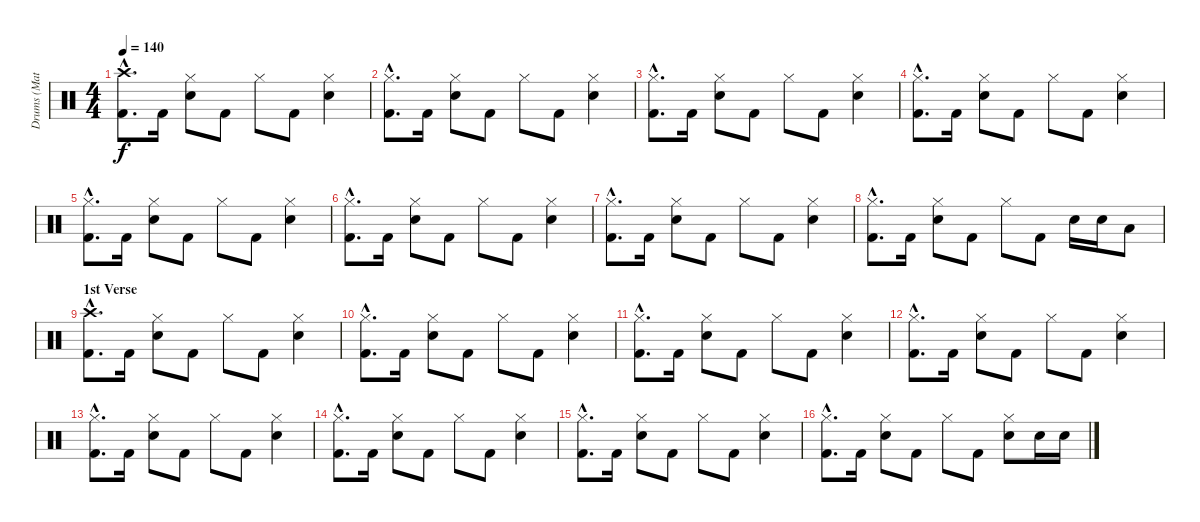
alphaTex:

\track ("Drums (Matt)" "Drums (Mat") {instrument percussion}
\staff {score}
\articulation defaults
\ts (4 4)
\tempo 140
\clef neutral
\ks c
("Crash high (hit)"{hac} "Kick (hit) 2"{hac}).8{d dy f} "Kick (hit) 2".16 ("Hi-Hat (closed)" "Snare (hit) 2").8 "Kick (hit) 2".8 "Hi-Hat (closed)".8 "Kick (hit) 2".8 ("Hi-Hat (closed)" "Snare (hit) 2").4 |
("Hi-Hat (closed)"{hac} "Kick (hit) 2"{hac}).8{d} "Kick (hit) 2".16 ("Hi-Hat (closed)" "Snare (hit) 2").8 "Kick (hit) 2".8 "Hi-Hat (closed)".8 "Kick (hit) 2".8 ("Hi-Hat (closed)" "Snare (hit) 2").4 |
("Hi-Hat (closed)"{hac} "Kick (hit) 2"{hac}).8{d} "Kick (hit) 2".16 ("Hi-Hat (closed)" "Snare (hit) 2").8 "Kick (hit) 2".8 "Hi-Hat (closed)".8 "Kick (hit) 2".8 ("Hi-Hat (closed)" "Snare (hit) 2").4 |
("Hi-Hat (closed)"{hac} "Kick (hit) 2"{hac}).8{d} "Kick (hit) 2".16 ("Hi-Hat (closed)" "Snare (hit) 2").8 "Kick (hit) 2".8 "Hi-Hat (closed)".8 "Kick (hit) 2".8 ("Hi-Hat (closed)" "Snare (hit) 2").4 |
("Hi-Hat (closed)"{hac} "Kick (hit) 2"{hac}).8{d} "Kick (hit) 2".16 ("Hi-Hat (closed)" "Snare (hit) 2").8 "Kick (hit) 2".8 "Hi-Hat (closed)".8 "Kick (hit) 2".8 ("Hi-Hat (closed)" "Snare (hit) 2").4 |
("Hi-Hat (closed)"{hac} "Kick (hit) 2"{hac}).8{d} "Kick (hit) 2".16 ("Hi-Hat (closed)" "Snare (hit) 2").8 "Kick (hit) 2".8 "Hi-Hat (closed)".8 "Kick (hit) 2".8 ("Hi-Hat (closed)" "Snare (hit) 2").4 |
("Hi-Hat (closed)"{hac} "Kick (hit) 2"{hac}).8{d} "Kick (hit) 2".16 ("Hi-Hat (closed)" "Snare (hit) 2").8 "Kick (hit) 2".8 "Hi-Hat (closed)".8 "Kick (hit) 2".8 ("Hi-Hat (closed)" "Snare (hit) 2").4 |
("Hi-Hat (closed)"{hac} "Kick (hit) 2"{hac}).8{d} "Kick (hit) 2".16 ("Hi-Hat (closed)" "Snare (hit) 2").8 "Kick (hit) 2".8 "Hi-Hat (closed)".8 "Kick (hit) 2".8 "Snare (hit) 2".16 "Snare (hit) 2".16 "Low Tom (hit)".8 |
\section ("" "1st Verse")
("Crash high (hit)"{hac} "Kick (hit) 2"{hac}).8{d} "Kick (hit) 2".16 ("Hi-Hat (closed)" "Snare (hit) 2").8 "Kick (hit) 2".8 "Hi-Hat (closed)".8 "Kick (hit) 2".8 ("Hi-Hat (closed)" "Snare (hit) 2").4 |
("Hi-Hat (closed)"{hac} "Kick (hit) 2"{hac}).8{d} "Kick (hit) 2".16 ("Hi-Hat (closed)" "Snare (hit) 2").8 "Kick (hit) 2".8 "Hi-Hat (closed)".8 "Kick (hit) 2".8 ("Hi-Hat (closed)" "Snare (hit) 2").4 |
("Hi-Hat (closed)"{hac} "Kick (hit) 2"{hac}).8{d} "Kick (hit) 2".16 ("Hi-Hat (closed)" "Snare (hit) 2").8 "Kick (hit) 2".8 "Hi-Hat (closed)".8 "Kick (hit) 2".8 ("Hi-Hat (closed)" "Snare (hit) 2").4 |
("Hi-Hat (closed)"{hac} "Kick (hit) 2"{hac}).8{d} "Kick (hit) 2".16 ("Hi-Hat (closed)" "Snare (hit) 2").8 "Kick (hit) 2".8 "Hi-Hat (closed)".8 "Kick (hit) 2".8 ("Hi-Hat (closed)" "Snare (hit) 2").4 |
("Hi-Hat (closed)"{hac} "Kick (hit) 2"{hac}).8{d} "Kick (hit) 2".16 ("Hi-Hat (closed)" "Snare (hit) 2").8 "Kick (hit) 2".8 "Hi-Hat (closed)".8 "Kick (hit) 2".8 ("Hi-Hat (closed)" "Snare (hit) 2").4 |
("Hi-Hat (closed)"{hac} "Kick (hit) 2"{hac}).8{d} "Kick (hit) 2".16 ("Hi-Hat (closed)" "Snare (hit) 2").8 "Kick (hit) 2".8 "Hi-Hat (closed)".8 "Kick (hit) 2".8 ("Hi-Hat (closed)" "Snare (hit) 2").4 |
("Hi-Hat (closed)"{hac} "Kick (hit) 2"{hac}).8{d} "Kick (hit) 2".16 ("Hi-Hat (closed)" "Snare (hit) 2").8 "Kick (hit) 2".8 "Hi-Hat (closed)".8 "Kick (hit) 2".8 ("Hi-Hat (closed)" "Snare (hit) 2").4 |
("Hi-Hat (closed)"{hac} "Kick (hit) 2"{hac}).8{d} "Kick (hit) 2".16 ("Hi-Hat (closed)" "Snare (hit) 2").8 "Kick (hit) 2".8 "Hi-Hat (closed)".8 "Kick (hit) 2".8 ("Hi-Hat (closed)" "Snare (hit) 2").8 "Snare (hit) 2".16 "Snare (hit) 2".16
